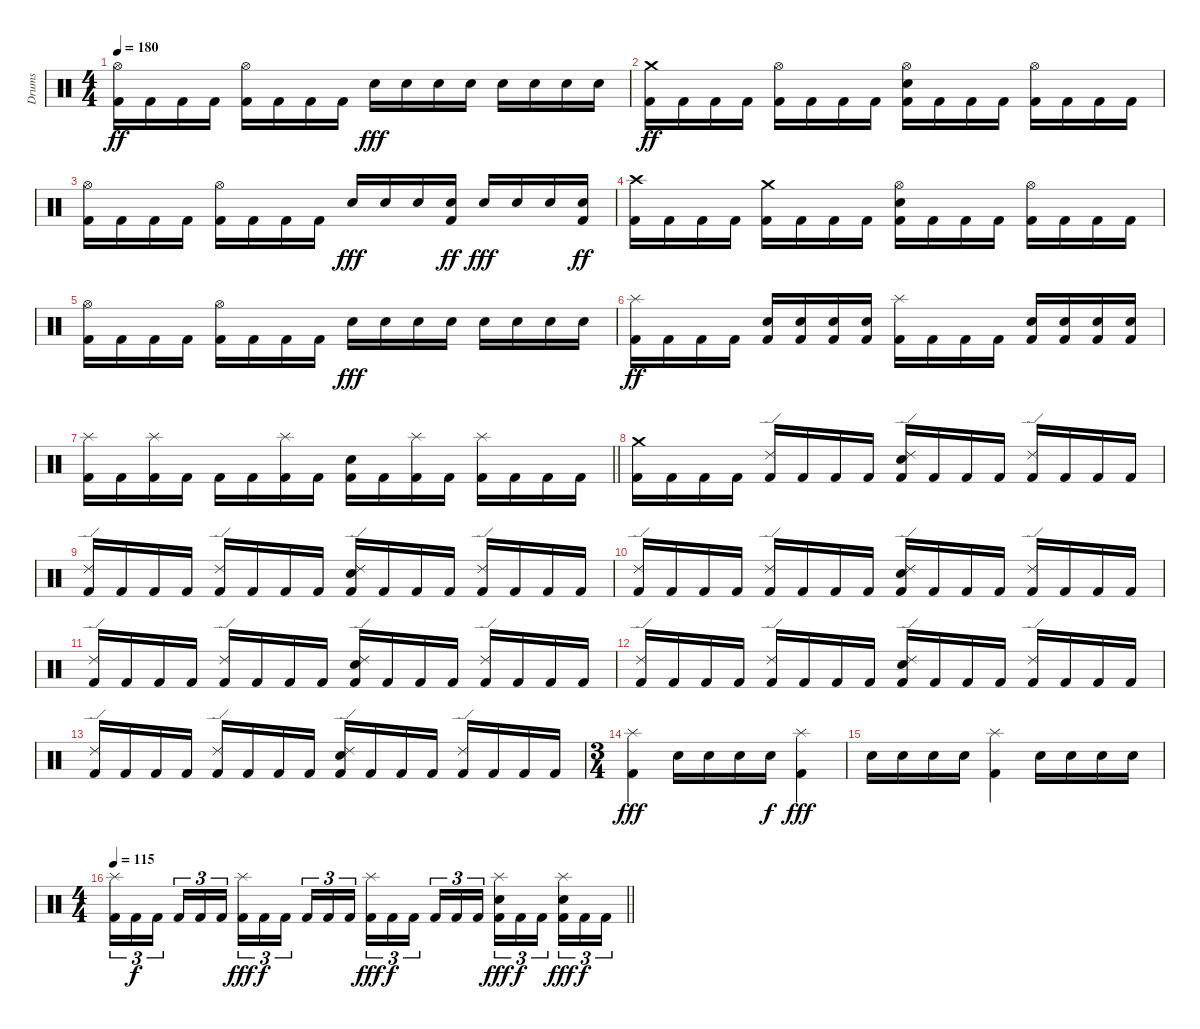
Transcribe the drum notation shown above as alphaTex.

\track ("Drums" "Drums") {instrument percussion}
\staff {score}
\articulation defaults
\ts (4 4)
\tempo 180
\clef neutral
\ks c
("Hi-Hat (open)" "Kick (hit) 2").16{dy ff} "Kick (hit) 2".16 "Kick (hit) 2".16 "Kick (hit) 2".16 ("Hi-Hat (open)" "Kick (hit) 2").16 "Kick (hit) 2".16 "Kick (hit) 2".16 "Kick (hit) 2".16 "Electric Snare (hit)".16{dy fff} "Electric Snare (hit)".16 "Electric Snare (hit)".16 "Electric Snare (hit)".16 "Electric Snare (hit)".16 "Electric Snare (hit)".16 "Electric Snare (hit)".16 "Electric Snare (hit)".16 |
("Crash medium (hit)" "Kick (hit) 2").16{dy ff} "Kick (hit) 2".16 "Kick (hit) 2".16 "Kick (hit) 2".16 ("Hi-Hat (open)" "Kick (hit) 2").16 "Kick (hit) 2".16 "Kick (hit) 2".16 "Kick (hit) 2".16 ("Hi-Hat (open)" "Electric Snare (hit)" "Kick (hit) 2").16 "Kick (hit) 2".16 "Kick (hit) 2".16 "Kick (hit) 2".16 ("Hi-Hat (open)" "Kick (hit) 2").16 "Kick (hit) 2".16 "Kick (hit) 2".16 "Kick (hit) 2".16 |
("Hi-Hat (open)" "Kick (hit) 2").16 "Kick (hit) 2".16 "Kick (hit) 2".16 "Kick (hit) 2".16 ("Hi-Hat (open)" "Kick (hit) 2").16 "Kick (hit) 2".16 "Kick (hit) 2".16 "Kick (hit) 2".16 "Electric Snare (hit)".16{dy fff} "Electric Snare (hit)".16 "Electric Snare (hit)".16 ("Electric Snare (hit)" "Kick (hit) 2").16{dy ff} "Electric Snare (hit)".16{dy fff} "Electric Snare (hit)".16 "Electric Snare (hit)".16 ("Electric Snare (hit)" "Kick (hit) 2").16{dy ff} |
("Crash high (hit)" "Kick (hit) 2").16 "Kick (hit) 2".16 "Kick (hit) 2".16 "Kick (hit) 2".16 ("Crash medium (hit)" "Kick (hit) 2").16 "Kick (hit) 2".16 "Kick (hit) 2".16 "Kick (hit) 2".16 ("Hi-Hat (open)" "Electric Snare (hit)" "Kick (hit) 2").16 "Kick (hit) 2".16 "Kick (hit) 2".16 "Kick (hit) 2".16 ("Hi-Hat (open)" "Kick (hit) 2").16 "Kick (hit) 2".16 "Kick (hit) 2".16 "Kick (hit) 2".16 |
("Hi-Hat (open)" "Kick (hit) 2").16 "Kick (hit) 2".16 "Kick (hit) 2".16 "Kick (hit) 2".16 ("Hi-Hat (open)" "Kick (hit) 2").16 "Kick (hit) 2".16 "Kick (hit) 2".16 "Kick (hit) 2".16 "Electric Snare (hit)".16{dy fff} "Electric Snare (hit)".16 "Electric Snare (hit)".16 "Electric Snare (hit)".16 "Electric Snare (hit)".16 "Electric Snare (hit)".16 "Electric Snare (hit)".16 "Electric Snare (hit)".16 |
("Splash (hit)" "Kick (hit) 2").16{dy ff} "Kick (hit) 2".16 "Kick (hit) 2".16 "Kick (hit) 2".16 ("Electric Snare (hit)" "Kick (hit) 2").16 ("Electric Snare (hit)" "Kick (hit) 2").16 ("Electric Snare (hit)" "Kick (hit) 2").16 ("Electric Snare (hit)" "Kick (hit) 2").16 ("Splash (hit)" "Kick (hit) 2").16 "Kick (hit) 2".16 "Kick (hit) 2".16 "Kick (hit) 2".16 ("Electric Snare (hit)" "Kick (hit) 2").16 ("Electric Snare (hit)" "Kick (hit) 2").16 ("Electric Snare (hit)" "Kick (hit) 2").16 ("Electric Snare (hit)" "Kick (hit) 2").16 |
\barLineRight lightlight
("Splash (hit)" "Kick (hit) 2").16 "Kick (hit) 2".16 ("Splash (hit)" "Kick (hit) 2").16 "Kick (hit) 2".16 "Kick (hit) 2".16 "Kick (hit) 2".16 ("Splash (hit)" "Kick (hit) 2").16 "Kick (hit) 2".16 ("Electric Snare (hit)" "Kick (hit) 2").16 "Kick (hit) 2".16 ("Splash (hit)" "Kick (hit) 2").16 "Kick (hit) 2".16 ("Splash (hit)" "Kick (hit) 2").16 "Kick (hit) 2".16 "Kick (hit) 2".16 "Kick (hit) 2".16 |
("Crash medium (hit)" "Kick (hit) 2").16 "Kick (hit) 2".16 "Kick (hit) 2".16 "Kick (hit) 2".16 ("Ride (edge) 2" "Kick (hit) 2").16 "Kick (hit) 2".16 "Kick (hit) 2".16 "Kick (hit) 2".16 ("Ride (edge) 2" "Electric Snare (hit)" "Kick (hit) 2").16 "Kick (hit) 2".16 "Kick (hit) 2".16 "Kick (hit) 2".16 ("Ride (edge) 2" "Kick (hit) 2").16 "Kick (hit) 2".16 "Kick (hit) 2".16 "Kick (hit) 2".16 |
("Ride (edge) 2" "Kick (hit) 2").16 "Kick (hit) 2".16 "Kick (hit) 2".16 "Kick (hit) 2".16 ("Ride (edge) 2" "Kick (hit) 2").16 "Kick (hit) 2".16 "Kick (hit) 2".16 "Kick (hit) 2".16 ("Ride (edge) 2" "Electric Snare (hit)" "Kick (hit) 2").16 "Kick (hit) 2".16 "Kick (hit) 2".16 "Kick (hit) 2".16 ("Ride (edge) 2" "Kick (hit) 2").16 "Kick (hit) 2".16 "Kick (hit) 2".16 "Kick (hit) 2".16 |
("Ride (edge) 2" "Kick (hit) 2").16 "Kick (hit) 2".16 "Kick (hit) 2".16 "Kick (hit) 2".16 ("Ride (edge) 2" "Kick (hit) 2").16 "Kick (hit) 2".16 "Kick (hit) 2".16 "Kick (hit) 2".16 ("Ride (edge) 2" "Electric Snare (hit)" "Kick (hit) 2").16 "Kick (hit) 2".16 "Kick (hit) 2".16 "Kick (hit) 2".16 ("Ride (edge) 2" "Kick (hit) 2").16 "Kick (hit) 2".16 "Kick (hit) 2".16 "Kick (hit) 2".16 |
("Ride (edge) 2" "Kick (hit) 2").16 "Kick (hit) 2".16 "Kick (hit) 2".16 "Kick (hit) 2".16 ("Ride (edge) 2" "Kick (hit) 2").16 "Kick (hit) 2".16 "Kick (hit) 2".16 "Kick (hit) 2".16 ("Ride (edge) 2" "Electric Snare (hit)" "Kick (hit) 2").16 "Kick (hit) 2".16 "Kick (hit) 2".16 "Kick (hit) 2".16 ("Ride (edge) 2" "Kick (hit) 2").16 "Kick (hit) 2".16 "Kick (hit) 2".16 "Kick (hit) 2".16 |
("Ride (edge) 2" "Kick (hit) 2").16 "Kick (hit) 2".16 "Kick (hit) 2".16 "Kick (hit) 2".16 ("Ride (edge) 2" "Kick (hit) 2").16 "Kick (hit) 2".16 "Kick (hit) 2".16 "Kick (hit) 2".16 ("Ride (edge) 2" "Electric Snare (hit)" "Kick (hit) 2").16 "Kick (hit) 2".16 "Kick (hit) 2".16 "Kick (hit) 2".16 ("Ride (edge) 2" "Kick (hit) 2").16 "Kick (hit) 2".16 "Kick (hit) 2".16 "Kick (hit) 2".16 |
("Ride (edge) 2" "Kick (hit) 2").16 "Kick (hit) 2".16 "Kick (hit) 2".16 "Kick (hit) 2".16 ("Ride (edge) 2" "Kick (hit) 2").16 "Kick (hit) 2".16 "Kick (hit) 2".16 "Kick (hit) 2".16 ("Ride (edge) 2" "Electric Snare (hit)" "Kick (hit) 2").16 "Kick (hit) 2".16 "Kick (hit) 2".16 "Kick (hit) 2".16 ("Ride (edge) 2" "Kick (hit) 2").16 "Kick (hit) 2".16 "Kick (hit) 2".16 "Kick (hit) 2".16 |
\ts (3 4)
("Splash (hit)" "Kick (hit) 2").4{dy fff} "Electric Snare (hit)".16 "Electric Snare (hit)".16 "Electric Snare (hit)".16 "Electric Snare (hit)".16{dy f} ("Splash (hit)" "Kick (hit) 2").4{dy fff} |
"Electric Snare (hit)".16 "Electric Snare (hit)".16 "Electric Snare (hit)".16 "Electric Snare (hit)".16 ("Splash (hit)" "Kick (hit) 2").4 "Electric Snare (hit)".16 "Electric Snare (hit)".16 "Electric Snare (hit)".16 "Electric Snare (hit)".16 |
\ts (4 4)
\tempo 115
\barLineRight lightlight
("Splash (hit)" "Kick (hit) 2").16{tu (3 2)} "Kick (hit) 2".16{tu (3 2) dy f} "Kick (hit) 2".16{tu (3 2) beam splitsecondary} "Kick (hit) 2".16{tu (3 2)} "Kick (hit) 2".16{tu (3 2)} "Kick (hit) 2".16{tu (3 2)} ("Splash (hit)" "Kick (hit) 2").16{tu (3 2) dy fff} "Kick (hit) 2".16{tu (3 2) dy f} "Kick (hit) 2".16{tu (3 2) beam splitsecondary} "Kick (hit) 2".16{tu (3 2)} "Kick (hit) 2".16{tu (3 2)} "Kick (hit) 2".16{tu (3 2)} ("Splash (hit)" "Kick (hit) 2").16{tu (3 2) dy fff} "Kick (hit) 2".16{tu (3 2) dy f} "Kick (hit) 2".16{tu (3 2) beam splitsecondary} "Kick (hit) 2".16{tu (3 2)} "Kick (hit) 2".16{tu (3 2)} "Kick (hit) 2".16{tu (3 2)} ("Splash (hit)" "Electric Snare (hit)" "Kick (hit) 2").16{tu (3 2) dy fff} "Kick (hit) 2".16{tu (3 2) dy f} "Kick (hit) 2".16{tu (3 2) beam splitsecondary} ("Splash (hit)" "Electric Snare (hit)" "Kick (hit) 2").16{tu (3 2) dy fff} "Kick (hit) 2".16{tu (3 2) dy f} "Kick (hit) 2".16{tu (3 2)}
